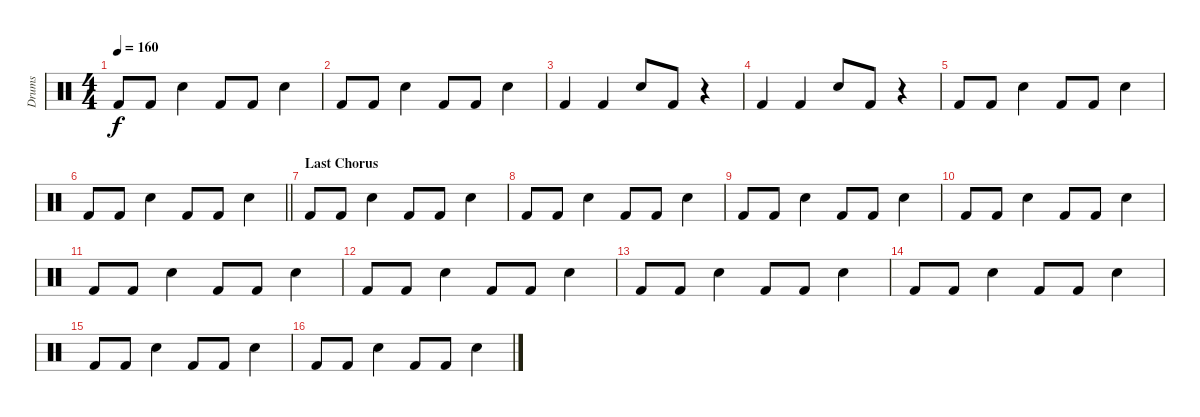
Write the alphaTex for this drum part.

\track ("Drums" "Drums") {instrument percussion}
\staff {score}
\articulation defaults
\ts (4 4)
\tempo 160
\clef neutral
\ks c "Kick (hit) 2".8{dy f} "Kick (hit) 2".8 "Electric Snare (hit)".4 "Kick (hit) 2".8 "Kick (hit) 2".8 "Electric Snare (hit)".4
|
"Kick (hit) 2".8 "Kick (hit) 2".8 "Electric Snare (hit)".4 "Kick (hit) 2".8 "Kick (hit) 2".8 "Electric Snare (hit)".4 |
"Kick (hit) 2".4 "Kick (hit) 2".4 "Electric Snare (hit)".8 "Kick (hit) 2".8 r.4 |
"Kick (hit) 2".4 "Kick (hit) 2".4 "Electric Snare (hit)".8 "Kick (hit) 2".8 r.4 |
"Kick (hit) 2".8 "Kick (hit) 2".8 "Electric Snare (hit)".4 "Kick (hit) 2".8 "Kick (hit) 2".8 "Electric Snare (hit)".4 |
\barLineRight lightlight "Kick (hit) 2".8 "Kick (hit) 2".8 "Electric Snare (hit)".4 "Kick (hit) 2".8 "Kick (hit) 2".8 "Electric Snare (hit)".4
|
\section ("" "Last Chorus")
"Kick (hit) 2".8 "Kick (hit) 2".8 "Electric Snare (hit)".4 "Kick (hit) 2".8 "Kick (hit) 2".8 "Electric Snare (hit)".4 |
"Kick (hit) 2".8 "Kick (hit) 2".8 "Electric Snare (hit)".4 "Kick (hit) 2".8 "Kick (hit) 2".8 "Electric Snare (hit)".4 |
"Kick (hit) 2".8 "Kick (hit) 2".8 "Electric Snare (hit)".4 "Kick (hit) 2".8 "Kick (hit) 2".8 "Electric Snare (hit)".4 |
"Kick (hit) 2".8 "Kick (hit) 2".8 "Electric Snare (hit)".4 "Kick (hit) 2".8 "Kick (hit) 2".8 "Electric Snare (hit)".4 |
"Kick (hit) 2".8 "Kick (hit) 2".8 "Electric Snare (hit)".4 "Kick (hit) 2".8 "Kick (hit) 2".8 "Electric Snare (hit)".4 |
"Kick (hit) 2".8 "Kick (hit) 2".8 "Electric Snare (hit)".4 "Kick (hit) 2".8 "Kick (hit) 2".8 "Electric Snare (hit)".4 |
"Kick (hit) 2".8 "Kick (hit) 2".8 "Electric Snare (hit)".4 "Kick (hit) 2".8 "Kick (hit) 2".8 "Electric Snare (hit)".4 |
"Kick (hit) 2".8 "Kick (hit) 2".8 "Electric Snare (hit)".4 "Kick (hit) 2".8 "Kick (hit) 2".8 "Electric Snare (hit)".4 |
"Kick (hit) 2".8 "Kick (hit) 2".8 "Electric Snare (hit)".4 "Kick (hit) 2".8 "Kick (hit) 2".8 "Electric Snare (hit)".4 |
"Kick (hit) 2".8 "Kick (hit) 2".8 "Electric Snare (hit)".4 "Kick (hit) 2".8 "Kick (hit) 2".8 "Electric Snare (hit)".4
